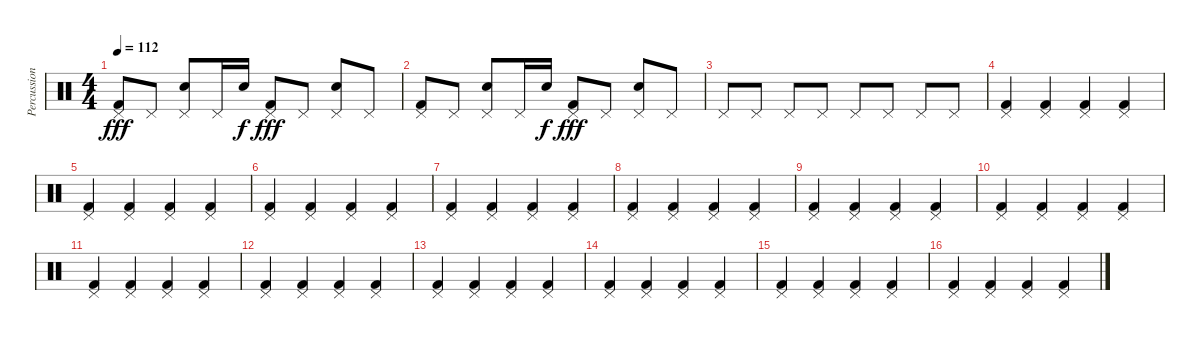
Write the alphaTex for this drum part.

\track ("Percussions" "Percussion") {instrument percussion}
\staff {score}
\articulation defaults
\ts (4 4)
\tempo 112
\clef neutral
\ks c
("Pedal Hi-Hat (hit)" "Kick (hit) 2").8{dy fff} "Pedal Hi-Hat (hit)".8 ("Pedal Hi-Hat (hit)" "Electric Snare (hit)").8 "Pedal Hi-Hat (hit)".16 "Electric Snare (hit)".16{dy f} ("Pedal Hi-Hat (hit)" "Kick (hit) 2").8{dy fff} "Pedal Hi-Hat (hit)".8 ("Pedal Hi-Hat (hit)" "Electric Snare (hit)").8 "Pedal Hi-Hat (hit)".8 |
("Pedal Hi-Hat (hit)" "Kick (hit) 2").8 "Pedal Hi-Hat (hit)".8 ("Pedal Hi-Hat (hit)" "Electric Snare (hit)").8 "Pedal Hi-Hat (hit)".16 "Electric Snare (hit)".16{dy f} ("Pedal Hi-Hat (hit)" "Kick (hit) 2").8{dy fff} "Pedal Hi-Hat (hit)".8 ("Pedal Hi-Hat (hit)" "Electric Snare (hit)").8 "Pedal Hi-Hat (hit)".8 |
"Pedal Hi-Hat (hit)".8 "Pedal Hi-Hat (hit)".8 "Pedal Hi-Hat (hit)".8 "Pedal Hi-Hat (hit)".8 "Pedal Hi-Hat (hit)".8 "Pedal Hi-Hat (hit)".8 "Pedal Hi-Hat (hit)".8 "Pedal Hi-Hat (hit)".8 |
("Pedal Hi-Hat (hit)" "Kick (hit) 2").4 ("Pedal Hi-Hat (hit)" "Kick (hit) 2").4 ("Pedal Hi-Hat (hit)" "Kick (hit) 2").4 ("Pedal Hi-Hat (hit)" "Kick (hit) 2").4 |
("Pedal Hi-Hat (hit)" "Kick (hit) 2").4 ("Pedal Hi-Hat (hit)" "Kick (hit) 2").4 ("Pedal Hi-Hat (hit)" "Kick (hit) 2").4 ("Pedal Hi-Hat (hit)" "Kick (hit) 2").4 |
("Pedal Hi-Hat (hit)" "Kick (hit) 2").4 ("Pedal Hi-Hat (hit)" "Kick (hit) 2").4 ("Pedal Hi-Hat (hit)" "Kick (hit) 2").4 ("Pedal Hi-Hat (hit)" "Kick (hit) 2").4 |
("Pedal Hi-Hat (hit)" "Kick (hit) 2").4 ("Pedal Hi-Hat (hit)" "Kick (hit) 2").4 ("Pedal Hi-Hat (hit)" "Kick (hit) 2").4 ("Pedal Hi-Hat (hit)" "Kick (hit) 2").4 |
("Pedal Hi-Hat (hit)" "Kick (hit) 2").4 ("Pedal Hi-Hat (hit)" "Kick (hit) 2").4 ("Pedal Hi-Hat (hit)" "Kick (hit) 2").4 ("Pedal Hi-Hat (hit)" "Kick (hit) 2").4 |
("Pedal Hi-Hat (hit)" "Kick (hit) 2").4 ("Pedal Hi-Hat (hit)" "Kick (hit) 2").4 ("Pedal Hi-Hat (hit)" "Kick (hit) 2").4 ("Pedal Hi-Hat (hit)" "Kick (hit) 2").4 |
("Pedal Hi-Hat (hit)" "Kick (hit) 2").4 ("Pedal Hi-Hat (hit)" "Kick (hit) 2").4 ("Pedal Hi-Hat (hit)" "Kick (hit) 2").4 ("Pedal Hi-Hat (hit)" "Kick (hit) 2").4 |
("Pedal Hi-Hat (hit)" "Kick (hit) 2").4 ("Pedal Hi-Hat (hit)" "Kick (hit) 2").4 ("Pedal Hi-Hat (hit)" "Kick (hit) 2").4 ("Pedal Hi-Hat (hit)" "Kick (hit) 2").4 |
("Pedal Hi-Hat (hit)" "Kick (hit) 2").4 ("Pedal Hi-Hat (hit)" "Kick (hit) 2").4 ("Pedal Hi-Hat (hit)" "Kick (hit) 2").4 ("Pedal Hi-Hat (hit)" "Kick (hit) 2").4 |
("Pedal Hi-Hat (hit)" "Kick (hit) 2").4 ("Pedal Hi-Hat (hit)" "Kick (hit) 2").4 ("Pedal Hi-Hat (hit)" "Kick (hit) 2").4 ("Pedal Hi-Hat (hit)" "Kick (hit) 2").4 |
("Pedal Hi-Hat (hit)" "Kick (hit) 2").4 ("Pedal Hi-Hat (hit)" "Kick (hit) 2").4 ("Pedal Hi-Hat (hit)" "Kick (hit) 2").4 ("Pedal Hi-Hat (hit)" "Kick (hit) 2").4 |
("Pedal Hi-Hat (hit)" "Kick (hit) 2").4 ("Pedal Hi-Hat (hit)" "Kick (hit) 2").4 ("Pedal Hi-Hat (hit)" "Kick (hit) 2").4 ("Pedal Hi-Hat (hit)" "Kick (hit) 2").4 |
("Pedal Hi-Hat (hit)" "Kick (hit) 2").4 ("Pedal Hi-Hat (hit)" "Kick (hit) 2").4 ("Pedal Hi-Hat (hit)" "Kick (hit) 2").4 ("Pedal Hi-Hat (hit)" "Kick (hit) 2").4
